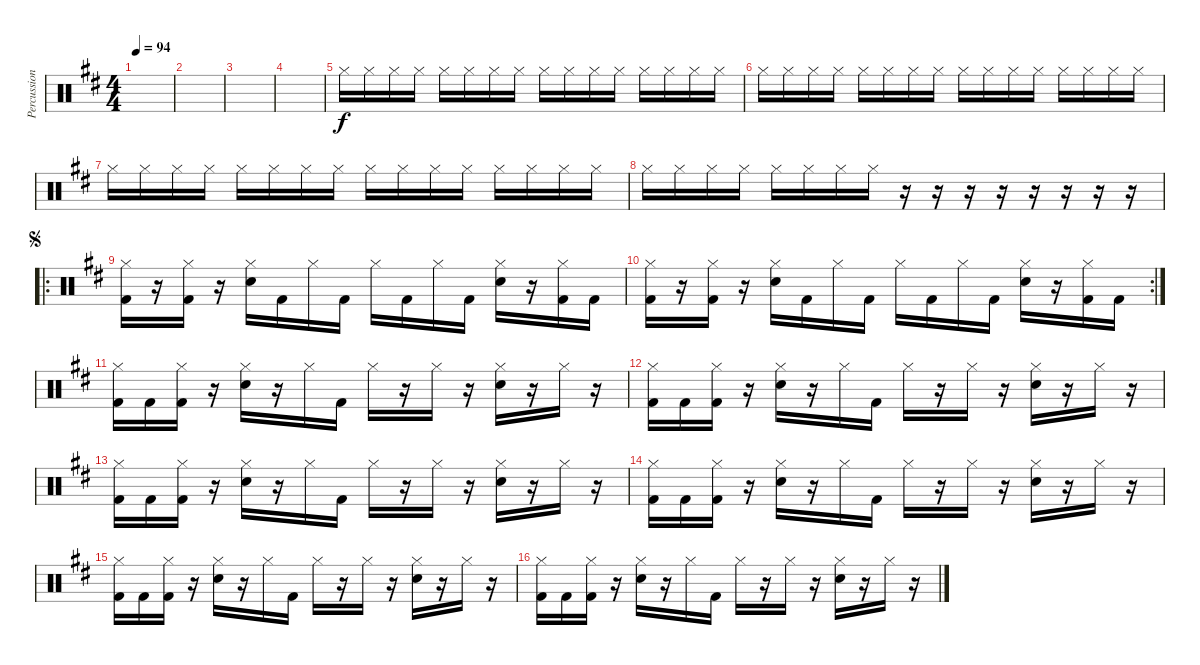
\track ("Percussion" "Percussion") {instrument percussion}
\staff {score}
\articulation defaults
\ts (4 4)
\tempo 94
\clef neutral
\ks d
|
|
|
|
"Hi-Hat (closed)".16 "Hi-Hat (closed)".16 "Hi-Hat (closed)".16 "Hi-Hat (closed)".16 "Hi-Hat (closed)".16 "Hi-Hat (closed)".16 "Hi-Hat (closed)".16 "Hi-Hat (closed)".16 "Hi-Hat (closed)".16 "Hi-Hat (closed)".16 "Hi-Hat (closed)".16 "Hi-Hat (closed)".16 "Hi-Hat (closed)".16 "Hi-Hat (closed)".16 "Hi-Hat (closed)".16 "Hi-Hat (closed)".16 |
"Hi-Hat (closed)".16 "Hi-Hat (closed)".16 "Hi-Hat (closed)".16 "Hi-Hat (closed)".16 "Hi-Hat (closed)".16 "Hi-Hat (closed)".16 "Hi-Hat (closed)".16 "Hi-Hat (closed)".16 "Hi-Hat (closed)".16 "Hi-Hat (closed)".16 "Hi-Hat (closed)".16 "Hi-Hat (closed)".16 "Hi-Hat (closed)".16 "Hi-Hat (closed)".16 "Hi-Hat (closed)".16 "Hi-Hat (closed)".16 |
"Hi-Hat (closed)".16 "Hi-Hat (closed)".16 "Hi-Hat (closed)".16 "Hi-Hat (closed)".16 "Hi-Hat (closed)".16 "Hi-Hat (closed)".16 "Hi-Hat (closed)".16 "Hi-Hat (closed)".16 "Hi-Hat (closed)".16 "Hi-Hat (closed)".16 "Hi-Hat (closed)".16 "Hi-Hat (closed)".16 "Hi-Hat (closed)".16 "Hi-Hat (closed)".16 "Hi-Hat (closed)".16 "Hi-Hat (closed)".16 |
"Hi-Hat (closed)".16 "Hi-Hat (closed)".16 "Hi-Hat (closed)".16 "Hi-Hat (closed)".16 "Hi-Hat (closed)".16 "Hi-Hat (closed)".16 "Hi-Hat (closed)".16 "Hi-Hat (closed)".16 r.16 r.16 r.16 r.16 r.16 r.16 r.16 r.16 |
\ro
\jump segno
("Hi-Hat (closed)" "Kick (hit) 2").16 r.16 ("Hi-Hat (closed)" "Kick (hit) 2").16 r.16 ("Hi-Hat (closed)" "Electric Snare (hit)").16 "Kick (hit) 2".16 "Hi-Hat (closed)".16 "Kick (hit) 2".16 "Hi-Hat (closed)".16 "Kick (hit) 2".16 "Hi-Hat (closed)".16 "Kick (hit) 2".16 ("Hi-Hat (closed)" "Electric Snare (hit)").16 r.16 ("Hi-Hat (closed)" "Kick (hit) 2").16 "Kick (hit) 2".16 |
\rc 2
("Hi-Hat (closed)" "Kick (hit) 2").16 r.16 ("Hi-Hat (closed)" "Kick (hit) 2").16 r.16 ("Hi-Hat (closed)" "Electric Snare (hit)").16 "Kick (hit) 2".16 "Hi-Hat (closed)".16 "Kick (hit) 2".16 "Hi-Hat (closed)".16 "Kick (hit) 2".16 "Hi-Hat (closed)".16 "Kick (hit) 2".16 ("Hi-Hat (closed)" "Electric Snare (hit)").16 r.16 ("Hi-Hat (closed)" "Kick (hit) 2").16 "Kick (hit) 2".16 |
("Hi-Hat (closed)" "Kick (hit) 2").16 "Kick (hit) 2".16 ("Hi-Hat (closed)" "Kick (hit) 2").16 r.16 ("Hi-Hat (closed)" "Electric Snare (hit)").16 r.16 "Hi-Hat (closed)".16 "Kick (hit) 2".16 "Hi-Hat (closed)".16 r.16 "Hi-Hat (closed)".16 r.16 ("Hi-Hat (closed)" "Electric Snare (hit)").16 r.16 "Hi-Hat (closed)".16 r.16 |
("Hi-Hat (closed)" "Kick (hit) 2").16 "Kick (hit) 2".16 ("Hi-Hat (closed)" "Kick (hit) 2").16 r.16 ("Hi-Hat (closed)" "Electric Snare (hit)").16 r.16 "Hi-Hat (closed)".16 "Kick (hit) 2".16 "Hi-Hat (closed)".16 r.16 "Hi-Hat (closed)".16 r.16 ("Hi-Hat (closed)" "Electric Snare (hit)").16 r.16 "Hi-Hat (closed)".16 r.16 |
("Hi-Hat (closed)" "Kick (hit) 2").16 "Kick (hit) 2".16 ("Hi-Hat (closed)" "Kick (hit) 2").16 r.16 ("Hi-Hat (closed)" "Electric Snare (hit)").16 r.16 "Hi-Hat (closed)".16 "Kick (hit) 2".16 "Hi-Hat (closed)".16 r.16 "Hi-Hat (closed)".16 r.16 ("Hi-Hat (closed)" "Electric Snare (hit)").16 r.16 "Hi-Hat (closed)".16 r.16 |
("Hi-Hat (closed)" "Kick (hit) 2").16 "Kick (hit) 2".16 ("Hi-Hat (closed)" "Kick (hit) 2").16 r.16 ("Hi-Hat (closed)" "Electric Snare (hit)").16 r.16 "Hi-Hat (closed)".16 "Kick (hit) 2".16 "Hi-Hat (closed)".16 r.16 "Hi-Hat (closed)".16 r.16 ("Hi-Hat (closed)" "Electric Snare (hit)").16 r.16 "Hi-Hat (closed)".16 r.16 |
("Hi-Hat (closed)" "Kick (hit) 2").16 "Kick (hit) 2".16 ("Hi-Hat (closed)" "Kick (hit) 2").16 r.16 ("Hi-Hat (closed)" "Electric Snare (hit)").16 r.16 "Hi-Hat (closed)".16 "Kick (hit) 2".16 "Hi-Hat (closed)".16 r.16 "Hi-Hat (closed)".16 r.16 ("Hi-Hat (closed)" "Electric Snare (hit)").16 r.16 "Hi-Hat (closed)".16 r.16 |
("Hi-Hat (closed)" "Kick (hit) 2").16 "Kick (hit) 2".16 ("Hi-Hat (closed)" "Kick (hit) 2").16 r.16 ("Hi-Hat (closed)" "Electric Snare (hit)").16 r.16 "Hi-Hat (closed)".16 "Kick (hit) 2".16 "Hi-Hat (closed)".16 r.16 "Hi-Hat (closed)".16 r.16 ("Hi-Hat (closed)" "Electric Snare (hit)").16 r.16 "Hi-Hat (closed)".16 r.16
